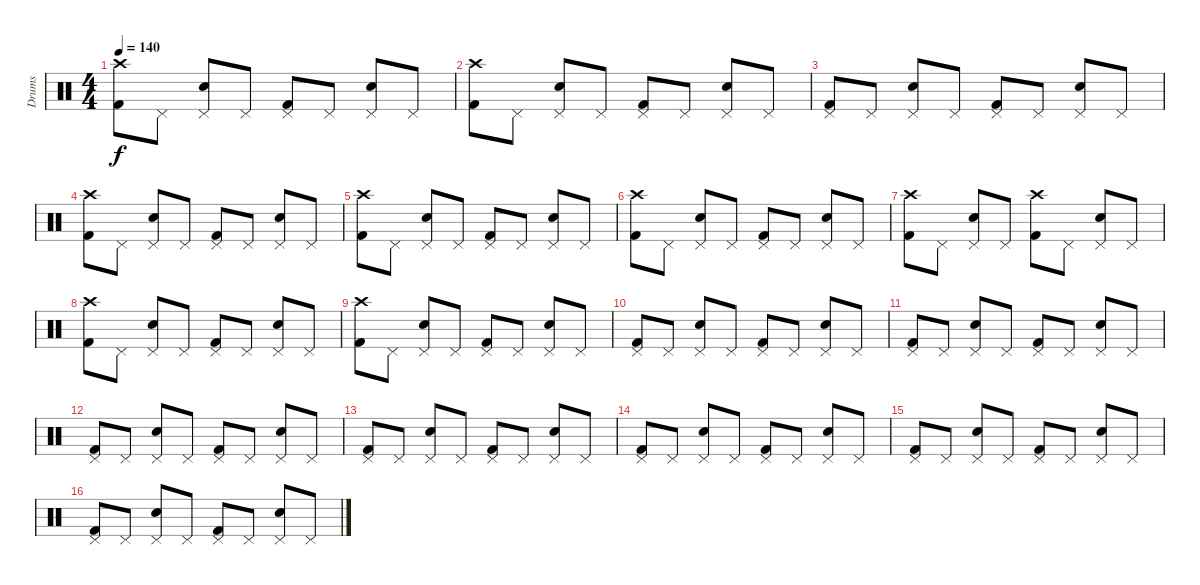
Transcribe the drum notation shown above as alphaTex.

\track ("Drums" "Drums") {instrument percussion}
\staff {score}
\articulation defaults
\ts (4 4)
\tempo 140
\clef neutral
\ks c
("Crash high (hit)" "Kick (hit) 2").8{dy f} "Pedal Hi-Hat (hit)".8 ("Pedal Hi-Hat (hit)" "Snare (hit) 2").8 "Pedal Hi-Hat (hit)".8 ("Pedal Hi-Hat (hit)" "Kick (hit) 2").8 "Pedal Hi-Hat (hit)".8 ("Pedal Hi-Hat (hit)" "Snare (hit) 2").8 "Pedal Hi-Hat (hit)".8 |
("Crash high (hit)" "Kick (hit) 2").8 "Pedal Hi-Hat (hit)".8 ("Pedal Hi-Hat (hit)" "Snare (hit) 2").8 "Pedal Hi-Hat (hit)".8 ("Pedal Hi-Hat (hit)" "Kick (hit) 2").8 "Pedal Hi-Hat (hit)".8 ("Pedal Hi-Hat (hit)" "Snare (hit) 2").8 "Pedal Hi-Hat (hit)".8 |
("Pedal Hi-Hat (hit)" "Kick (hit) 2").8 "Pedal Hi-Hat (hit)".8 ("Pedal Hi-Hat (hit)" "Snare (hit) 2").8 "Pedal Hi-Hat (hit)".8 ("Pedal Hi-Hat (hit)" "Kick (hit) 2").8 "Pedal Hi-Hat (hit)".8 ("Pedal Hi-Hat (hit)" "Snare (hit) 2").8 "Pedal Hi-Hat (hit)".8 |
("Crash high (hit)" "Kick (hit) 2").8 "Pedal Hi-Hat (hit)".8 ("Pedal Hi-Hat (hit)" "Snare (hit) 2").8 "Pedal Hi-Hat (hit)".8 ("Pedal Hi-Hat (hit)" "Kick (hit) 2").8 "Pedal Hi-Hat (hit)".8 ("Pedal Hi-Hat (hit)" "Snare (hit) 2").8 "Pedal Hi-Hat (hit)".8 |
("Crash high (hit)" "Kick (hit) 2").8 "Pedal Hi-Hat (hit)".8 ("Pedal Hi-Hat (hit)" "Snare (hit) 2").8 "Pedal Hi-Hat (hit)".8 ("Pedal Hi-Hat (hit)" "Kick (hit) 2").8 "Pedal Hi-Hat (hit)".8 ("Pedal Hi-Hat (hit)" "Snare (hit) 2").8 "Pedal Hi-Hat (hit)".8 |
("Crash high (hit)" "Kick (hit) 2").8 "Pedal Hi-Hat (hit)".8 ("Pedal Hi-Hat (hit)" "Snare (hit) 2").8 "Pedal Hi-Hat (hit)".8 ("Pedal Hi-Hat (hit)" "Kick (hit) 2").8 "Pedal Hi-Hat (hit)".8 ("Pedal Hi-Hat (hit)" "Snare (hit) 2").8 "Pedal Hi-Hat (hit)".8 |
("Crash high (hit)" "Kick (hit) 2").8 "Pedal Hi-Hat (hit)".8 ("Pedal Hi-Hat (hit)" "Snare (hit) 2").8 "Pedal Hi-Hat (hit)".8 ("Crash high (hit)" "Kick (hit) 2").8 "Pedal Hi-Hat (hit)".8 ("Pedal Hi-Hat (hit)" "Snare (hit) 2").8 "Pedal Hi-Hat (hit)".8 |
("Crash high (hit)" "Kick (hit) 2").8 "Pedal Hi-Hat (hit)".8 ("Pedal Hi-Hat (hit)" "Snare (hit) 2").8 "Pedal Hi-Hat (hit)".8 ("Pedal Hi-Hat (hit)" "Kick (hit) 2").8 "Pedal Hi-Hat (hit)".8 ("Pedal Hi-Hat (hit)" "Snare (hit) 2").8 "Pedal Hi-Hat (hit)".8 |
("Crash high (hit)" "Kick (hit) 2").8 "Pedal Hi-Hat (hit)".8 ("Pedal Hi-Hat (hit)" "Snare (hit) 2").8 "Pedal Hi-Hat (hit)".8 ("Pedal Hi-Hat (hit)" "Kick (hit) 2").8 "Pedal Hi-Hat (hit)".8 ("Pedal Hi-Hat (hit)" "Snare (hit) 2").8 "Pedal Hi-Hat (hit)".8 |
("Pedal Hi-Hat (hit)" "Kick (hit) 2").8 "Pedal Hi-Hat (hit)".8 ("Pedal Hi-Hat (hit)" "Snare (hit) 2").8 "Pedal Hi-Hat (hit)".8 ("Pedal Hi-Hat (hit)" "Kick (hit) 2").8 "Pedal Hi-Hat (hit)".8 ("Pedal Hi-Hat (hit)" "Snare (hit) 2").8 "Pedal Hi-Hat (hit)".8 |
("Pedal Hi-Hat (hit)" "Kick (hit) 2").8 "Pedal Hi-Hat (hit)".8 ("Pedal Hi-Hat (hit)" "Snare (hit) 2").8 "Pedal Hi-Hat (hit)".8 ("Pedal Hi-Hat (hit)" "Kick (hit) 2").8 "Pedal Hi-Hat (hit)".8 ("Pedal Hi-Hat (hit)" "Snare (hit) 2").8 "Pedal Hi-Hat (hit)".8 |
("Pedal Hi-Hat (hit)" "Kick (hit) 2").8 "Pedal Hi-Hat (hit)".8 ("Pedal Hi-Hat (hit)" "Snare (hit) 2").8 "Pedal Hi-Hat (hit)".8 ("Pedal Hi-Hat (hit)" "Kick (hit) 2").8 "Pedal Hi-Hat (hit)".8 ("Pedal Hi-Hat (hit)" "Snare (hit) 2").8 "Pedal Hi-Hat (hit)".8 |
("Pedal Hi-Hat (hit)" "Kick (hit) 2").8 "Pedal Hi-Hat (hit)".8 ("Pedal Hi-Hat (hit)" "Snare (hit) 2").8 "Pedal Hi-Hat (hit)".8 ("Pedal Hi-Hat (hit)" "Kick (hit) 2").8 "Pedal Hi-Hat (hit)".8 ("Pedal Hi-Hat (hit)" "Snare (hit) 2").8 "Pedal Hi-Hat (hit)".8 |
("Pedal Hi-Hat (hit)" "Kick (hit) 2").8 "Pedal Hi-Hat (hit)".8 ("Pedal Hi-Hat (hit)" "Snare (hit) 2").8 "Pedal Hi-Hat (hit)".8 ("Pedal Hi-Hat (hit)" "Kick (hit) 2").8 "Pedal Hi-Hat (hit)".8 ("Pedal Hi-Hat (hit)" "Snare (hit) 2").8 "Pedal Hi-Hat (hit)".8 |
("Pedal Hi-Hat (hit)" "Kick (hit) 2").8 "Pedal Hi-Hat (hit)".8 ("Pedal Hi-Hat (hit)" "Snare (hit) 2").8 "Pedal Hi-Hat (hit)".8 ("Pedal Hi-Hat (hit)" "Kick (hit) 2").8 "Pedal Hi-Hat (hit)".8 ("Pedal Hi-Hat (hit)" "Snare (hit) 2").8 "Pedal Hi-Hat (hit)".8 |
("Pedal Hi-Hat (hit)" "Kick (hit) 2").8 "Pedal Hi-Hat (hit)".8 ("Pedal Hi-Hat (hit)" "Snare (hit) 2").8 "Pedal Hi-Hat (hit)".8 ("Pedal Hi-Hat (hit)" "Kick (hit) 2").8 "Pedal Hi-Hat (hit)".8 ("Pedal Hi-Hat (hit)" "Snare (hit) 2").8 "Pedal Hi-Hat (hit)".8
